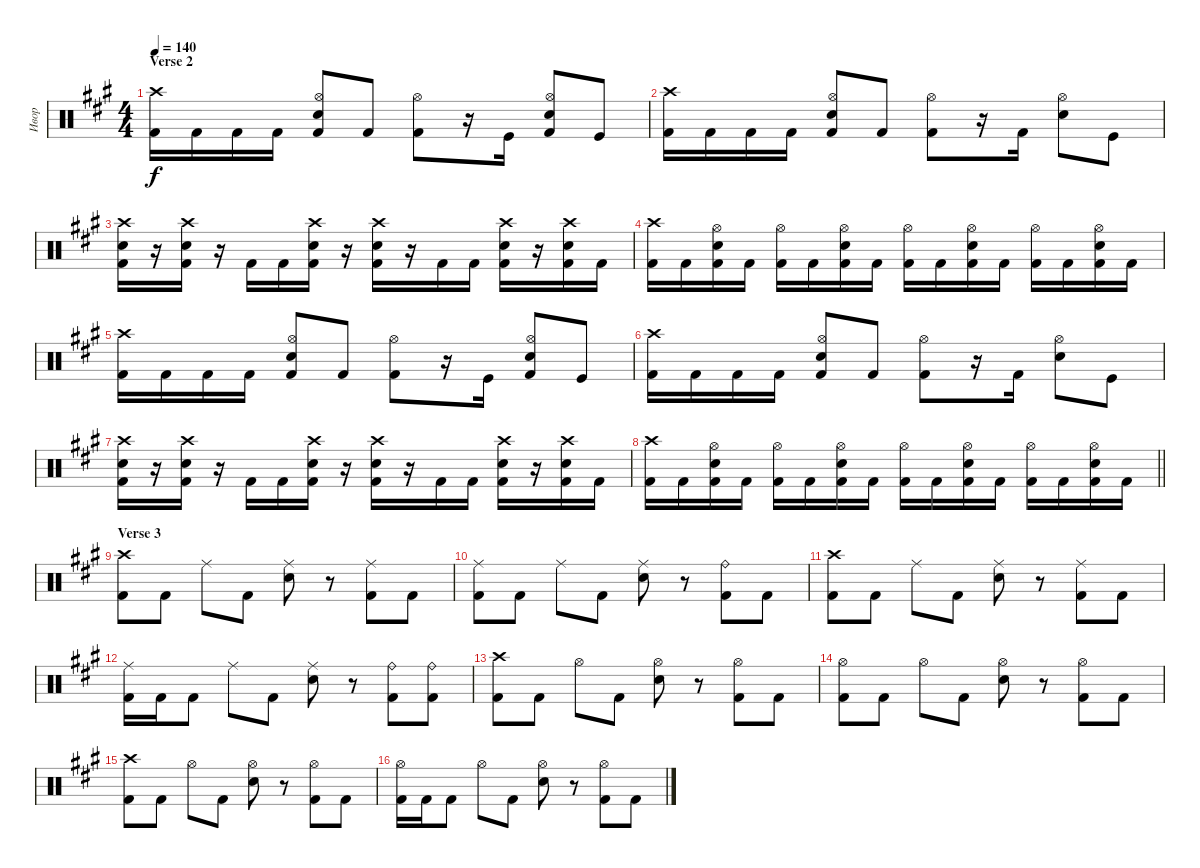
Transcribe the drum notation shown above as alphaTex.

\track ("Ивор" "Ивор") {instrument percussion}
\staff {score}
\articulation defaults
\ts (4 4)
\section ("" "Verse 2")
\tempo 140
\clef neutral
\ks f#minor
("Crash high (hit)" "Kick (hit) 2").16{dy f} "Kick (hit) 2".16 "Kick (hit) 2".16 "Kick (hit) 2".16 ("Hi-Hat (open)" "Electric Snare (hit)" "Kick (hit) 2").8 "Kick (hit) 2".8 ("Hi-Hat (open)" "Kick (hit) 2").8 r.16 "Kick (hit)".16 ("Hi-Hat (open)" "Electric Snare (hit)" "Kick (hit) 2").8 "Kick (hit)".8 |
("Crash high (hit)" "Kick (hit) 2").16 "Kick (hit) 2".16 "Kick (hit) 2".16 "Kick (hit) 2".16 ("Hi-Hat (open)" "Electric Snare (hit)" "Kick (hit) 2").8 "Kick (hit) 2".8 ("Hi-Hat (open)" "Kick (hit) 2").8 r.16 "Kick (hit) 2".16 ("Hi-Hat (open)" "Electric Snare (hit)").8 "Kick (hit)".8 |
("Crash high (hit)" "Electric Snare (hit)" "Kick (hit) 2").16 r.16 ("Crash high (hit)" "Electric Snare (hit)" "Kick (hit) 2").16 r.16 "Kick (hit) 2".16 "Kick (hit) 2".16 ("Crash high (hit)" "Electric Snare (hit)" "Kick (hit) 2").16 r.16 ("Crash high (hit)" "Electric Snare (hit)" "Kick (hit) 2").16 r.16 "Kick (hit) 2".16 "Kick (hit) 2".16 ("Crash high (hit)" "Electric Snare (hit)" "Kick (hit) 2").16 r.16 ("Crash high (hit)" "Electric Snare (hit)" "Kick (hit) 2").16 "Kick (hit) 2".16 |
("Crash high (hit)" "Kick (hit) 2").16 "Kick (hit) 2".16 ("Hi-Hat (open)" "Electric Snare (hit)" "Kick (hit) 2").16 "Kick (hit) 2".16 ("Hi-Hat (open)" "Kick (hit) 2").16 "Kick (hit) 2".16 ("Hi-Hat (open)" "Electric Snare (hit)" "Kick (hit) 2").16 "Kick (hit) 2".16 ("Hi-Hat (open)" "Kick (hit) 2").16 "Kick (hit) 2".16 ("Hi-Hat (open)" "Electric Snare (hit)" "Kick (hit) 2").16 "Kick (hit) 2".16 ("Hi-Hat (open)" "Kick (hit) 2").16 "Kick (hit) 2".16 ("Hi-Hat (open)" "Electric Snare (hit)" "Kick (hit) 2").16 "Kick (hit) 2".16 |
("Crash high (hit)" "Kick (hit) 2").16 "Kick (hit) 2".16 "Kick (hit) 2".16 "Kick (hit) 2".16 ("Hi-Hat (open)" "Electric Snare (hit)" "Kick (hit) 2").8 "Kick (hit) 2".8 ("Hi-Hat (open)" "Kick (hit) 2").8 r.16 "Kick (hit)".16 ("Hi-Hat (open)" "Electric Snare (hit)" "Kick (hit) 2").8 "Kick (hit)".8 |
("Crash high (hit)" "Kick (hit) 2").16 "Kick (hit) 2".16 "Kick (hit) 2".16 "Kick (hit) 2".16 ("Hi-Hat (open)" "Electric Snare (hit)" "Kick (hit) 2").8 "Kick (hit) 2".8 ("Hi-Hat (open)" "Kick (hit) 2").8 r.16 "Kick (hit) 2".16 ("Hi-Hat (open)" "Electric Snare (hit)").8 "Kick (hit)".8 |
("Crash high (hit)" "Electric Snare (hit)" "Kick (hit) 2").16 r.16 ("Crash high (hit)" "Electric Snare (hit)" "Kick (hit) 2").16 r.16 "Kick (hit) 2".16 "Kick (hit) 2".16 ("Crash high (hit)" "Electric Snare (hit)" "Kick (hit) 2").16 r.16 ("Crash high (hit)" "Electric Snare (hit)" "Kick (hit) 2").16 r.16 "Kick (hit) 2".16 "Kick (hit) 2".16 ("Crash high (hit)" "Electric Snare (hit)" "Kick (hit) 2").16 r.16 ("Crash high (hit)" "Electric Snare (hit)" "Kick (hit) 2").16 "Kick (hit) 2".16 |
\barLineRight lightlight
("Crash high (hit)" "Kick (hit) 2").16 "Kick (hit) 2".16 ("Hi-Hat (open)" "Electric Snare (hit)" "Kick (hit) 2").16 "Kick (hit) 2".16 ("Hi-Hat (open)" "Kick (hit) 2").16 "Kick (hit) 2".16 ("Hi-Hat (open)" "Electric Snare (hit)" "Kick (hit) 2").16 "Kick (hit) 2".16 ("Hi-Hat (open)" "Kick (hit) 2").16 "Kick (hit) 2".16 ("Hi-Hat (open)" "Electric Snare (hit)" "Kick (hit) 2").16 "Kick (hit) 2".16 ("Hi-Hat (open)" "Kick (hit) 2").16 "Kick (hit) 2".16 ("Hi-Hat (open)" "Electric Snare (hit)" "Kick (hit) 2").16 "Kick (hit) 2".16 |
\section ("" "Verse 3")
("Crash high (hit)" "Kick (hit) 2").8 "Kick (hit) 2".8 "Ride (middle)".8 "Kick (hit) 2".8 ("Ride (middle)" "Electric Snare (hit)").8 r.8 ("Ride (middle)" "Kick (hit) 2").8 "Kick (hit) 2".8 |
("Ride (middle)" "Kick (hit) 2").8 "Kick (hit) 2".8 "Ride (middle)".8 "Kick (hit) 2".8 ("Ride (middle)" "Electric Snare (hit)").8 r.8 ("Ride (bell)" "Kick (hit) 2").8 "Kick (hit) 2".8 |
("Crash high (hit)" "Kick (hit) 2").8 "Kick (hit) 2".8 "Ride (middle)".8 "Kick (hit) 2".8 ("Ride (middle)" "Electric Snare (hit)").8 r.8 ("Ride (middle)" "Kick (hit) 2").8 "Kick (hit) 2".8 |
("Ride (middle)" "Kick (hit) 2").16 "Kick (hit) 2".16 "Kick (hit) 2".8 "Ride (middle)".8 "Kick (hit) 2".8 ("Ride (middle)" "Electric Snare (hit)").8 r.8 ("Ride (bell)" "Kick (hit) 2").8 ("Ride (bell)" "Kick (hit) 2").8 |
("Crash high (hit)" "Kick (hit) 2").8 "Kick (hit) 2".8 "Hi-Hat (open)".8 "Kick (hit) 2".8 ("Hi-Hat (open)" "Electric Snare (hit)").8 r.8 ("Hi-Hat (open)" "Kick (hit) 2").8 "Kick (hit) 2".8 |
("Hi-Hat (open)" "Kick (hit) 2").8 "Kick (hit) 2".8 "Hi-Hat (open)".8 "Kick (hit) 2".8 ("Hi-Hat (open)" "Electric Snare (hit)").8 r.8 ("Hi-Hat (open)" "Kick (hit) 2").8 "Kick (hit) 2".8 |
("Crash high (hit)" "Kick (hit) 2").8 "Kick (hit) 2".8 "Hi-Hat (open)".8 "Kick (hit) 2".8 ("Hi-Hat (open)" "Electric Snare (hit)").8 r.8 ("Hi-Hat (open)" "Kick (hit) 2").8 "Kick (hit) 2".8 |
("Hi-Hat (open)" "Kick (hit) 2").16 "Kick (hit) 2".16 "Kick (hit) 2".8 "Hi-Hat (open)".8 "Kick (hit) 2".8 ("Hi-Hat (open)" "Electric Snare (hit)").8 r.8 ("Hi-Hat (open)" "Kick (hit) 2").8 "Kick (hit) 2".8
